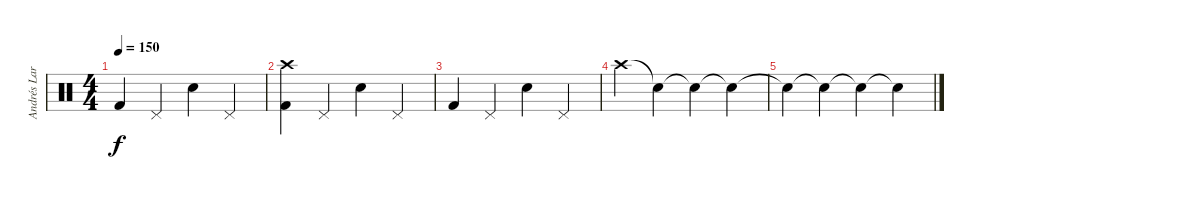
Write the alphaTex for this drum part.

\track ("Andrés Larraín (batería)" "Andrés Lar") {instrument percussion}
\staff {score}
\articulation defaults
\ts (4 4)
\tempo 150
\clef neutral
\ks c "Kick (hit) 2".4{dy f} "Pedal Hi-Hat (hit)".4 "Electric Snare (hit)".4 "Pedal Hi-Hat (hit)".4
|
("Crash high (hit)" "Kick (hit) 2").4 "Pedal Hi-Hat (hit)".4 "Electric Snare (hit)".4 "Pedal Hi-Hat (hit)".4 |
"Kick (hit) 2".4 "Pedal Hi-Hat (hit)".4 "Electric Snare (hit)".4 "Pedal Hi-Hat (hit)".4 |
"Crash high (hit)".4 "Snare (hit)"{t}.4 "Snare (hit)"{t}.4 "Snare (hit)"{t}.4 |
"Snare (hit)"{t}.4 "Snare (hit)"{t}.4 "Snare (hit)"{t}.4 "Snare (hit)"{t}.4
